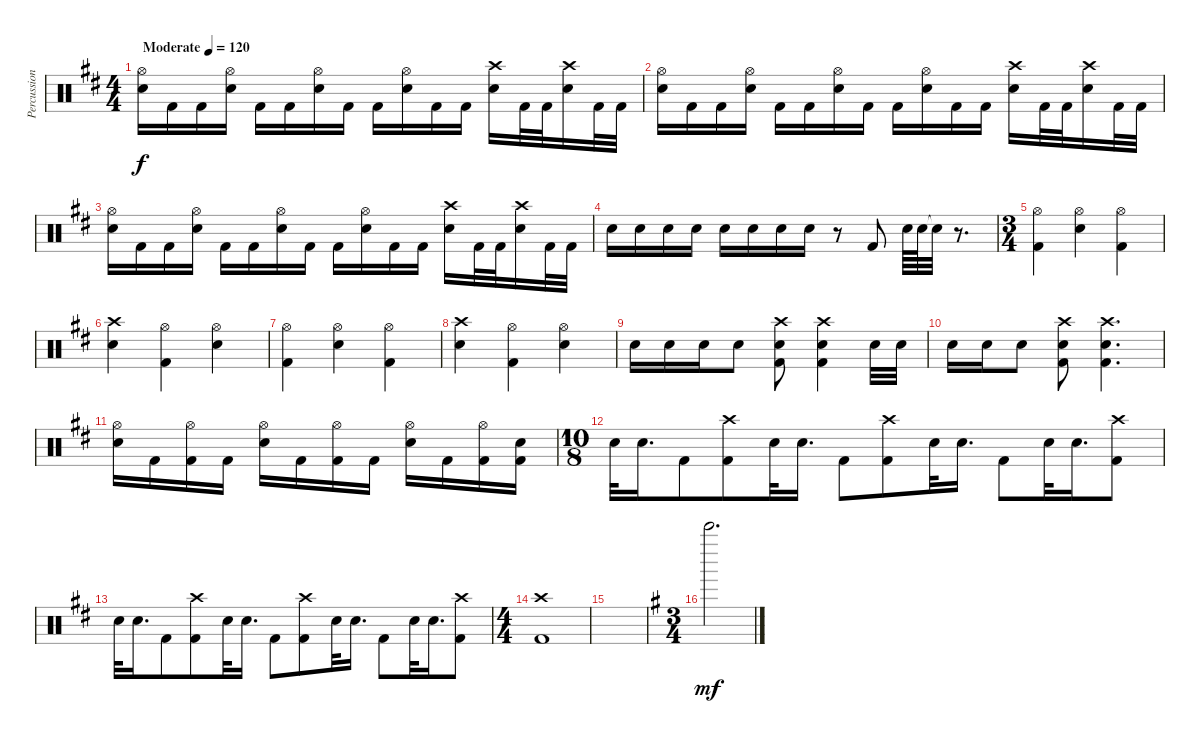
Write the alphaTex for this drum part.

\track ("Percussion" "Percussion") {instrument percussion}
\staff {score}
\articulation defaults
\ts (4 4)
\tempo (120 "Moderate")
\clef neutral
\ks d
("Hi-Hat (open)" "Snare (hit) 2").16{dy f} "Kick (hit) 2".16 "Kick (hit) 2".16 ("Hi-Hat (open)" "Snare (hit) 2").16 "Kick (hit) 2".16 "Kick (hit) 2".16 ("Hi-Hat (open)" "Snare (hit) 2").16 "Kick (hit) 2".16 "Kick (hit) 2".16 ("Hi-Hat (open)" "Snare (hit) 2").16 "Kick (hit) 2".16 "Kick (hit) 2".16 ("Crash high (hit)" "Snare (hit) 2").16 "Kick (hit) 2".32 "Kick (hit) 2".32 ("Crash high (hit)" "Snare (hit) 2").16 "Kick (hit) 2".32 "Kick (hit) 2".32 |
("Hi-Hat (open)" "Snare (hit) 2").16 "Kick (hit) 2".16 "Kick (hit) 2".16 ("Hi-Hat (open)" "Snare (hit) 2").16 "Kick (hit) 2".16 "Kick (hit) 2".16 ("Hi-Hat (open)" "Snare (hit) 2").16 "Kick (hit) 2".16 "Kick (hit) 2".16 ("Hi-Hat (open)" "Snare (hit) 2").16 "Kick (hit) 2".16 "Kick (hit) 2".16 ("Crash high (hit)" "Snare (hit) 2").16 "Kick (hit) 2".32 "Kick (hit) 2".32 ("Crash high (hit)" "Snare (hit) 2").16 "Kick (hit) 2".32 "Kick (hit) 2".32 |
("Hi-Hat (open)" "Snare (hit) 2").16 "Kick (hit) 2".16 "Kick (hit) 2".16 ("Hi-Hat (open)" "Snare (hit) 2").16 "Kick (hit) 2".16 "Kick (hit) 2".16 ("Hi-Hat (open)" "Snare (hit) 2").16 "Kick (hit) 2".16 "Kick (hit) 2".16 ("Hi-Hat (open)" "Snare (hit) 2").16 "Kick (hit) 2".16 "Kick (hit) 2".16 ("Crash high (hit)" "Snare (hit) 2").16 "Kick (hit) 2".32 "Kick (hit) 2".32 ("Crash high (hit)" "Snare (hit) 2").16 "Kick (hit) 2".32 "Kick (hit) 2".32 |
"Snare (hit) 2".16 "Snare (hit) 2".16 "Snare (hit) 2".16 "Snare (hit) 2".16 "Snare (hit) 2".16 "Snare (hit) 2".16 "Snare (hit) 2".16 "Snare (hit) 2".16 r.8 "Kick (hit) 2".8 "Snare (hit) 2".64 "Snare (hit) 2".64 "Snare (hit) 2"{t}.32 r.8{d} |
\ts (3 4)
("Hi-Hat (open)" "Kick (hit) 2").4 ("Hi-Hat (open)" "Snare (hit) 2").4 ("Hi-Hat (open)" "Kick (hit) 2").4 |
("Crash high (hit)" "Snare (hit) 2").4 ("Hi-Hat (open)" "Kick (hit) 2").4 ("Hi-Hat (open)" "Snare (hit) 2").4 |
("Hi-Hat (open)" "Kick (hit) 2").4 ("Hi-Hat (open)" "Snare (hit) 2").4 ("Hi-Hat (open)" "Kick (hit) 2").4 |
("Crash high (hit)" "Snare (hit) 2").4 ("Hi-Hat (open)" "Kick (hit) 2").4 ("Hi-Hat (open)" "Snare (hit) 2").4 |
"Snare (hit) 2".16 "Snare (hit) 2".16 "Snare (hit) 2".16 "Snare (hit) 2".8 ("Crash high (hit)" "Snare (hit) 2" "Kick (hit) 2").8 ("Crash high (hit)" "Snare (hit) 2" "Kick (hit) 2").4 "Snare (hit) 2".32 "Snare (hit) 2".32 |
"Snare (hit) 2".16 "Snare (hit) 2".16 "Snare (hit) 2".8 ("Crash high (hit)" "Snare (hit) 2" "Kick (hit) 2").8 ("Crash high (hit)" "Snare (hit) 2" "Kick (hit) 2").4{d} |
("Hi-Hat (open)" "Snare (hit) 2").16 "Kick (hit) 2".16 ("Hi-Hat (open)" "Kick (hit) 2").16 "Kick (hit) 2".16 ("Hi-Hat (open)" "Snare (hit) 2").16 "Kick (hit) 2".16 ("Hi-Hat (open)" "Kick (hit) 2").16 "Kick (hit) 2".16 ("Hi-Hat (open)" "Snare (hit) 2").16 "Kick (hit) 2".16 ("Hi-Hat (open)" "Kick (hit) 2").16 ("Snare (hit) 2" "Kick (hit) 2").16 |
\ts (10 8)
"Snare (hit) 2".32 "Snare (hit) 2".16{d} "Kick (hit) 2".8 ("Crash high (hit)" "Kick (hit) 2").8 "Snare (hit) 2".32 "Snare (hit) 2".16{d} "Kick (hit) 2".8 ("Crash high (hit)" "Kick (hit) 2").8 "Snare (hit) 2".32 "Snare (hit) 2".16{d} "Kick (hit) 2".8 "Snare (hit) 2".32 "Snare (hit) 2".16{d} ("Crash high (hit)" "Kick (hit) 2").8 |
"Snare (hit) 2".32 "Snare (hit) 2".16{d} "Kick (hit) 2".8 ("Crash high (hit)" "Kick (hit) 2").8 "Snare (hit) 2".32 "Snare (hit) 2".16{d} "Kick (hit) 2".8 ("Crash high (hit)" "Kick (hit) 2").8 "Snare (hit) 2".32 "Snare (hit) 2".16{d} "Kick (hit) 2".8 "Snare (hit) 2".32 "Snare (hit) 2".16{d} ("Crash high (hit)" "Kick (hit) 2").8 |
\ts (4 4)
("Crash high (hit)" "Kick (hit) 2").1 |
|
\ts (3 4)
\ks g "Bell Tree (hit)".2{d dy mf}
